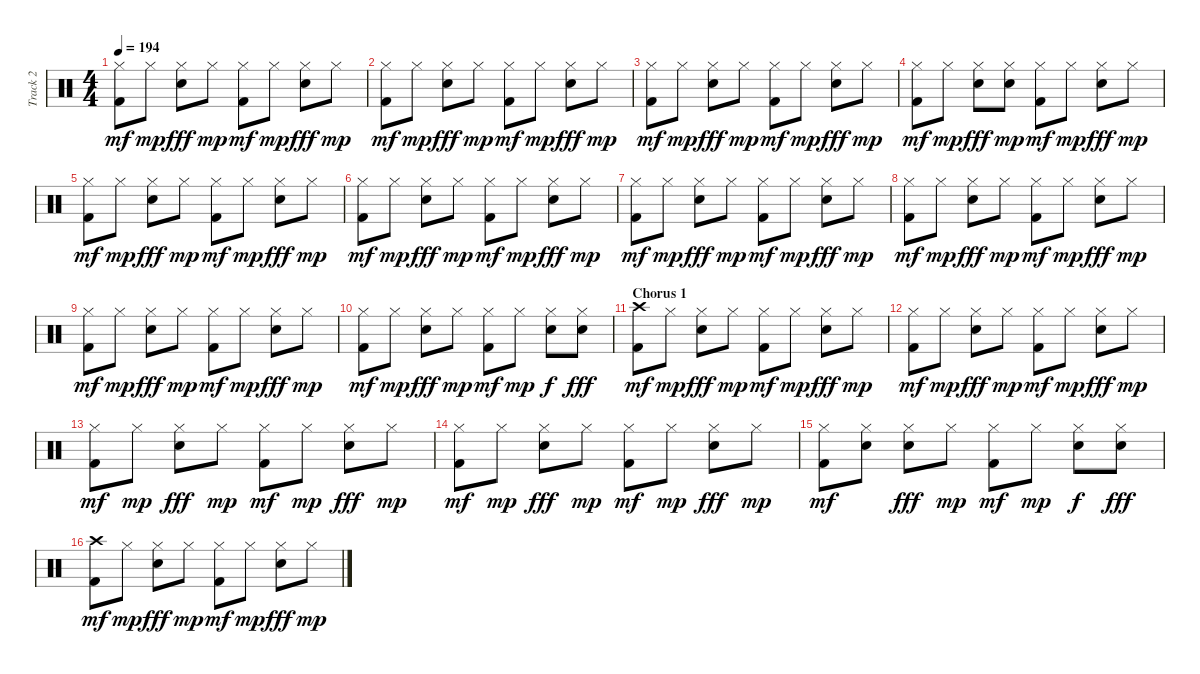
\track ("Track 2" "Track 2") {instrument percussion}
\staff {score}
\articulation defaults
\ts (4 4)
\tempo 194
\clef neutral
\ks c
("Hi-Hat (closed)" "Kick (hit) 2").8{dy mf} "Hi-Hat (closed)".8{dy mp} ("Hi-Hat (closed)" "Snare (hit)").8{dy fff} "Hi-Hat (closed)".8{dy mp} ("Hi-Hat (closed)" "Kick (hit) 2").8{dy mf} "Hi-Hat (closed)".8{dy mp} ("Hi-Hat (closed)" "Snare (hit)").8{dy fff} "Hi-Hat (closed)".8{dy mp} |
("Hi-Hat (closed)" "Kick (hit) 2").8{dy mf} "Hi-Hat (closed)".8{dy mp} ("Hi-Hat (closed)" "Snare (hit)").8{dy fff} "Hi-Hat (closed)".8{dy mp} ("Hi-Hat (closed)" "Kick (hit) 2").8{dy mf} "Hi-Hat (closed)".8{dy mp} ("Hi-Hat (closed)" "Snare (hit)").8{dy fff} "Hi-Hat (closed)".8{dy mp} |
("Hi-Hat (closed)" "Kick (hit) 2").8{dy mf} "Hi-Hat (closed)".8{dy mp} ("Hi-Hat (closed)" "Snare (hit)").8{dy fff} "Hi-Hat (closed)".8{dy mp} ("Hi-Hat (closed)" "Kick (hit) 2").8{dy mf} "Hi-Hat (closed)".8{dy mp} ("Hi-Hat (closed)" "Snare (hit)").8{dy fff} "Hi-Hat (closed)".8{dy mp} |
("Hi-Hat (closed)" "Kick (hit) 2").8{dy mf} "Hi-Hat (closed)".8{dy mp} ("Hi-Hat (closed)" "Snare (hit)").8{dy fff} ("Hi-Hat (closed)" "Snare (hit)").8{dy mp} ("Hi-Hat (closed)" "Kick (hit) 2").8{dy mf} "Hi-Hat (closed)".8{dy mp} ("Hi-Hat (closed)" "Snare (hit)").8{dy fff} "Hi-Hat (closed)".8{dy mp} |
("Hi-Hat (closed)" "Kick (hit) 2").8{dy mf} "Hi-Hat (closed)".8{dy mp} ("Hi-Hat (closed)" "Snare (hit)").8{dy fff} "Hi-Hat (closed)".8{dy mp} ("Hi-Hat (closed)" "Kick (hit) 2").8{dy mf} "Hi-Hat (closed)".8{dy mp} ("Hi-Hat (closed)" "Snare (hit)").8{dy fff} "Hi-Hat (closed)".8{dy mp} |
("Hi-Hat (closed)" "Kick (hit) 2").8{dy mf} "Hi-Hat (closed)".8{dy mp} ("Hi-Hat (closed)" "Snare (hit)").8{dy fff} "Hi-Hat (closed)".8{dy mp} ("Hi-Hat (closed)" "Kick (hit) 2").8{dy mf} "Hi-Hat (closed)".8{dy mp} ("Hi-Hat (closed)" "Snare (hit)").8{dy fff} "Hi-Hat (closed)".8{dy mp} |
("Hi-Hat (closed)" "Kick (hit) 2").8{dy mf} "Hi-Hat (closed)".8{dy mp} ("Hi-Hat (closed)" "Snare (hit)").8{dy fff} "Hi-Hat (closed)".8{dy mp} ("Hi-Hat (closed)" "Kick (hit) 2").8{dy mf} "Hi-Hat (closed)".8{dy mp} ("Hi-Hat (closed)" "Snare (hit)").8{dy fff} "Hi-Hat (closed)".8{dy mp} |
("Hi-Hat (closed)" "Kick (hit) 2").8{dy mf} "Hi-Hat (closed)".8{dy mp} ("Hi-Hat (closed)" "Snare (hit)").8{dy fff} "Hi-Hat (closed)".8{dy mp} ("Hi-Hat (closed)" "Kick (hit) 2").8{dy mf} "Hi-Hat (closed)".8{dy mp} ("Hi-Hat (closed)" "Snare (hit)").8{dy fff} "Hi-Hat (closed)".8{dy mp} |
("Hi-Hat (closed)" "Kick (hit) 2").8{dy mf} "Hi-Hat (closed)".8{dy mp} ("Hi-Hat (closed)" "Snare (hit)").8{dy fff} "Hi-Hat (closed)".8{dy mp} ("Hi-Hat (closed)" "Kick (hit) 2").8{dy mf} "Hi-Hat (closed)".8{dy mp} ("Hi-Hat (closed)" "Snare (hit)").8{dy fff} "Hi-Hat (closed)".8{dy mp} |
("Hi-Hat (closed)" "Kick (hit) 2").8{dy mf} "Hi-Hat (closed)".8{dy mp} ("Hi-Hat (closed)" "Snare (hit)").8{dy fff} "Hi-Hat (closed)".8{dy mp} ("Hi-Hat (closed)" "Kick (hit) 2").8{dy mf} "Hi-Hat (closed)".8{dy mp} ("Hi-Hat (closed)" "Snare (hit)").8{dy f} ("Hi-Hat (closed)" "Snare (hit)").8{dy fff} |
\section ("" "Chorus 1")
("Crash high (hit)" "Kick (hit) 2").8{dy mf} "Hi-Hat (closed)".8{dy mp} ("Hi-Hat (closed)" "Snare (hit)").8{dy fff} "Hi-Hat (closed)".8{dy mp} ("Hi-Hat (closed)" "Kick (hit) 2").8{dy mf} "Hi-Hat (closed)".8{dy mp} ("Hi-Hat (closed)" "Snare (hit)").8{dy fff} "Hi-Hat (closed)".8{dy mp} |
("Hi-Hat (closed)" "Kick (hit) 2").8{dy mf} "Hi-Hat (closed)".8{dy mp} ("Hi-Hat (closed)" "Snare (hit)").8{dy fff} "Hi-Hat (closed)".8{dy mp} ("Hi-Hat (closed)" "Kick (hit) 2").8{dy mf} "Hi-Hat (closed)".8{dy mp} ("Hi-Hat (closed)" "Snare (hit)").8{dy fff} "Hi-Hat (closed)".8{dy mp} |
("Hi-Hat (closed)" "Kick (hit) 2").8{dy mf} "Hi-Hat (closed)".8{dy mp} ("Hi-Hat (closed)" "Snare (hit)").8{dy fff} "Hi-Hat (closed)".8{dy mp} ("Hi-Hat (closed)" "Kick (hit) 2").8{dy mf} "Hi-Hat (closed)".8{dy mp} ("Hi-Hat (closed)" "Snare (hit)").8{dy fff} "Hi-Hat (closed)".8{dy mp} |
("Hi-Hat (closed)" "Kick (hit) 2").8{dy mf} "Hi-Hat (closed)".8{dy mp} ("Hi-Hat (closed)" "Snare (hit)").8{dy fff} "Hi-Hat (closed)".8{dy mp} ("Hi-Hat (closed)" "Kick (hit) 2").8{dy mf} "Hi-Hat (closed)".8{dy mp} ("Hi-Hat (closed)" "Snare (hit)").8{dy fff} "Hi-Hat (closed)".8{dy mp} |
("Hi-Hat (closed)" "Kick (hit) 2").8{dy mf} ("Hi-Hat (closed)" "Snare (hit)").8 ("Hi-Hat (closed)" "Snare (hit)").8{dy fff} "Hi-Hat (closed)".8{dy mp} ("Hi-Hat (closed)" "Kick (hit) 2").8{dy mf} "Hi-Hat (closed)".8{dy mp} ("Hi-Hat (closed)" "Snare (hit)").8{dy f} ("Hi-Hat (closed)" "Snare (hit)").8{dy fff} |
("Crash high (hit)" "Kick (hit) 2").8{dy mf} "Hi-Hat (closed)".8{dy mp} ("Hi-Hat (closed)" "Snare (hit)").8{dy fff} "Hi-Hat (closed)".8{dy mp} ("Hi-Hat (closed)" "Kick (hit) 2").8{dy mf} "Hi-Hat (closed)".8{dy mp} ("Hi-Hat (closed)" "Snare (hit)").8{dy fff} "Hi-Hat (closed)".8{dy mp}
